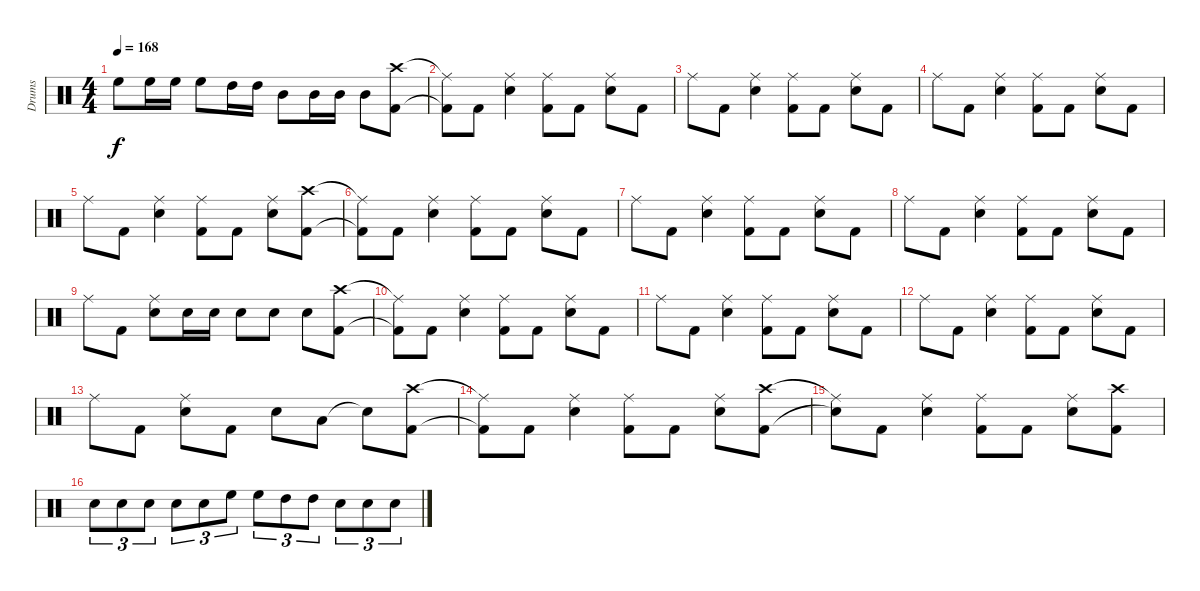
\track ("Drums" "Drums") {instrument percussion}
\staff {score}
\articulation defaults
\ts (4 4)
\tempo 168
\clef neutral
\ks c "High Floor Tom (hit)".8{dy f} "High Floor Tom (hit)".16 "High Floor Tom (hit)".16 "High Floor Tom (hit)".8 "High Tom (hit)".16 "High Tom (hit)".16 "Mid Tom (hit)".8 "Mid Tom (hit)".16 "Mid Tom (hit)".16 "Mid Tom (hit)".8
("Crash high (hit)" "Kick (hit) 2").8 |
("Ride (middle)"{t} "Kick (hit) 2"{t}).8 "Kick (hit) 2".8 ("Ride (middle)" "Electric Snare (hit)").4 ("Ride (middle)" "Kick (hit) 2").8 "Kick (hit) 2".8 ("Ride (middle)" "Electric Snare (hit)").8 "Kick (hit) 2".8 |
"Ride (middle)".8 "Kick (hit) 2".8 ("Ride (middle)" "Electric Snare (hit)").4 ("Ride (middle)" "Kick (hit) 2").8 "Kick (hit) 2".8 ("Ride (middle)" "Electric Snare (hit)").8 "Kick (hit) 2".8 |
"Ride (middle)".8 "Kick (hit) 2".8 ("Ride (middle)" "Electric Snare (hit)").4 ("Ride (middle)" "Kick (hit) 2").8 "Kick (hit) 2".8 ("Ride (middle)" "Electric Snare (hit)").8 "Kick (hit) 2".8 |
"Ride (middle)".8 "Kick (hit) 2".8 ("Ride (middle)" "Electric Snare (hit)").4 ("Ride (middle)" "Kick (hit) 2").8 "Kick (hit) 2".8 ("Ride (middle)" "Electric Snare (hit)").8 ("Crash high (hit)" "Kick (hit) 2").8 |
("Ride (middle)"{t} "Kick (hit) 2"{t}).8 "Kick (hit) 2".8 ("Ride (middle)" "Electric Snare (hit)").4 ("Ride (middle)" "Kick (hit) 2").8 "Kick (hit) 2".8 ("Ride (middle)" "Electric Snare (hit)").8 "Kick (hit) 2".8 |
"Ride (middle)".8 "Kick (hit) 2".8 ("Ride (middle)" "Electric Snare (hit)").4 ("Ride (middle)" "Kick (hit) 2").8 "Kick (hit) 2".8 ("Ride (middle)" "Electric Snare (hit)").8 "Kick (hit) 2".8 |
"Ride (middle)".8 "Kick (hit) 2".8 ("Ride (middle)" "Electric Snare (hit)").4 ("Ride (middle)" "Kick (hit) 2").8 "Kick (hit) 2".8 ("Ride (middle)" "Electric Snare (hit)").8 "Kick (hit) 2".8 |
"Ride (middle)".8 "Kick (hit) 2".8 ("Ride (middle)" "Electric Snare (hit)").8 "Electric Snare (hit)".16 "Electric Snare (hit)".16 "Electric Snare (hit)".8 "Electric Snare (hit)".8 "Electric Snare (hit)".8 ("Crash high (hit)" "Kick (hit) 2").8 |
("Ride (middle)"{t} "Kick (hit) 2"{t}).8 "Kick (hit) 2".8 ("Ride (middle)" "Electric Snare (hit)").4 ("Ride (middle)" "Kick (hit) 2").8 "Kick (hit) 2".8 ("Ride (middle)" "Electric Snare (hit)").8 "Kick (hit) 2".8 |
"Ride (middle)".8 "Kick (hit) 2".8 ("Ride (middle)" "Electric Snare (hit)").4 ("Ride (middle)" "Kick (hit) 2").8 "Kick (hit) 2".8 ("Ride (middle)" "Electric Snare (hit)").8 "Kick (hit) 2".8 |
"Ride (middle)".8 "Kick (hit) 2".8 ("Ride (middle)" "Electric Snare (hit)").4 ("Ride (middle)" "Kick (hit) 2").8 "Kick (hit) 2".8 ("Ride (middle)" "Electric Snare (hit)").8 "Kick (hit) 2".8 |
"Ride (middle)".8 "Kick (hit) 2".8 ("Ride (middle)" "Electric Snare (hit)").8 "Kick (hit) 2".8 "Electric Snare (hit)".8 "Low Tom (hit)".8 "Snare (hit)"{t}.8 ("Crash high (hit)" "Kick (hit) 2").8 |
("Ride (middle)"{t} "Kick (hit) 2"{t}).8 "Kick (hit) 2".8 ("Ride (middle)" "Electric Snare (hit)").4 ("Ride (middle)" "Kick (hit) 2").8 "Kick (hit) 2".8 ("Ride (middle)" "Electric Snare (hit)").8 ("Crash high (hit)" "Kick (hit) 2").8 |
("Ride (middle)"{t} "Snare (hit)"{t}).8 "Kick (hit) 2".8 ("Ride (middle)" "Electric Snare (hit)").4 ("Ride (middle)" "Kick (hit) 2").8 "Kick (hit) 2".8 ("Ride (middle)" "Electric Snare (hit)").8 ("Crash high (hit)" "Kick (hit) 2").8 |
"Electric Snare (hit)".8{tu (3 2)} "Electric Snare (hit)".8{tu (3 2)} "Electric Snare (hit)".8{tu (3 2)} "Electric Snare (hit)".8{tu (3 2)} "Electric Snare (hit)".8{tu (3 2)} "High Floor Tom (hit)".8{tu (3 2)} "High Floor Tom (hit)".8{tu (3 2)} "High Tom (hit)".8{tu (3 2)} "High Tom (hit)".8{tu (3 2)} "Electric Snare (hit)".8{tu (3 2)} "Electric Snare (hit)".8{tu (3 2)} "Electric Snare (hit)".8{tu (3 2)}
